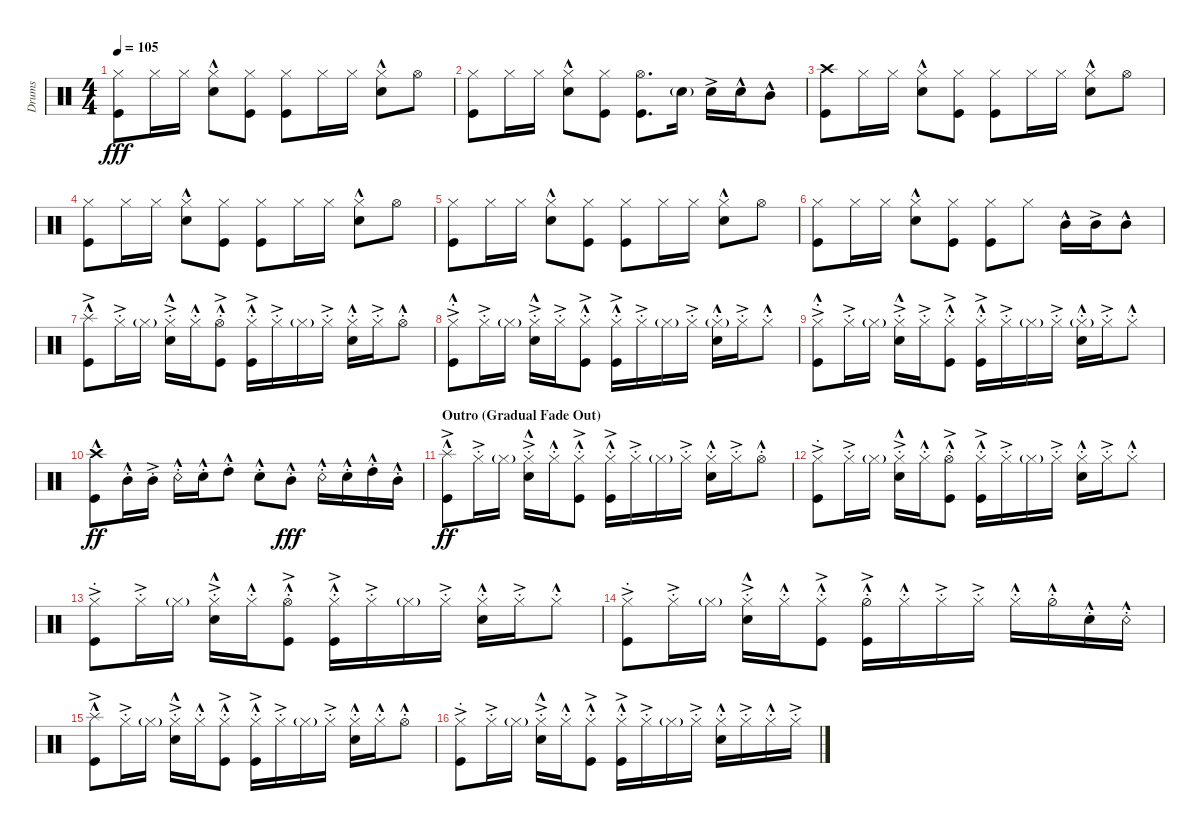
\defaultSystemsLayout 4
\otherSystemsTrackNameOrientation horizontal
\chordDiagramsInScore
\track ("Drumkit" "Drums") {instrument percussion}
\staff {score}
\articulation defaults
\ts (4 4)
\tempo 105
\clef neutral
\scale
0.5
\ks c
("Kick (hit)" "Hi-Hat (closed)").8{dy fff} "Hi-Hat (closed)".16 "Hi-Hat (closed)".16 ("Hi-Hat (closed)" "Snare (hit) 2"{hac}).8 ("Kick (hit)" "Hi-Hat (closed)").8 ("Kick (hit)" "Hi-Hat (closed)").8 "Hi-Hat (closed)".16 "Hi-Hat (closed)".16 ("Snare (hit) 2"{hac} "Hi-Hat (closed)").8 "Hi-Hat (open)".8 |
\scale
0.5 ("Kick (hit)" "Hi-Hat (closed)").8 "Hi-Hat (closed)".16 "Hi-Hat (closed)".16 ("Hi-Hat (closed)" "Snare (hit) 2"{hac}).8 ("Kick (hit)" "Hi-Hat (closed)").8 ("Kick (hit)" "Hi-Hat (open)").8{d} "Snare (hit) 2"{g}.16 "Snare (hit) 2"{ac}.16 "Snare (hit) 2"{hac}.16 "Mid Tom (hit)"{hac}.8 |
\scale
0.5 ("Kick (hit)" "Crash high (hit)").8 "Hi-Hat (closed)".16 "Hi-Hat (closed)".16 ("Hi-Hat (closed)" "Snare (hit) 2"{hac}).8 ("Kick (hit)" "Hi-Hat (closed)").8 ("Kick (hit)" "Hi-Hat (closed)").8 "Hi-Hat (closed)".16 "Hi-Hat (closed)".16 ("Snare (hit) 2"{hac} "Hi-Hat (closed)").8 "Hi-Hat (open)".8 |
\scale
0.5 ("Kick (hit)" "Hi-Hat (closed)").8 "Hi-Hat (closed)".16 "Hi-Hat (closed)".16 ("Hi-Hat (closed)" "Snare (hit) 2"{hac}).8 ("Kick (hit)" "Hi-Hat (closed)").8 ("Kick (hit)" "Hi-Hat (closed)").8 "Hi-Hat (closed)".16 "Hi-Hat (closed)".16 ("Snare (hit) 2"{hac} "Hi-Hat (closed)").8 "Hi-Hat (open)".8 |
\scale
0.5 ("Kick (hit)" "Hi-Hat (closed)").8 "Hi-Hat (closed)".16 "Hi-Hat (closed)".16 ("Hi-Hat (closed)" "Snare (hit) 2"{hac}).8 ("Kick (hit)" "Hi-Hat (closed)").8 ("Kick (hit)" "Hi-Hat (closed)").8 "Hi-Hat (closed)".16 "Hi-Hat (closed)".16 ("Snare (hit) 2"{hac} "Hi-Hat (closed)").8 "Hi-Hat (open)".8 |
\scale
0.5 ("Kick (hit)" "Hi-Hat (closed)").8 "Hi-Hat (closed)".16 "Hi-Hat (closed)".16 ("Hi-Hat (closed)" "Snare (hit) 2"{hac}).8 ("Kick (hit)" "Hi-Hat (closed)").8 ("Kick (hit)" "Hi-Hat (closed)").8 "Hi-Hat (closed)".8 "Mid Tom (hit)"{hac}.16 "Mid Tom (hit)"{ac}.16 "Mid Tom (hit)"{hac}.8 |
\scale
0.5 ("Splash (hit)"{hac} "Kick (hit)"{ac}).8 "Hi-Hat (closed)"{ac st}.16 "Hi-Hat (closed)"{g}.16 ("Hi-Hat (closed)"{ac st} "Snare (hit) 2"{hac st}).16 "Hi-Hat (closed)"{hac st}.16 ("Hi-Hat (open)"{hac st} "Kick (hit)"{ac st}).8 ("Hi-Hat (closed)"{hac st} "Kick (hit)"{ac st}).16 "Hi-Hat (closed)"{ac st}.16 "Hi-Hat (closed)"{g}.16 "Hi-Hat (closed)"{ac st}.16 ("Hi-Hat (closed)"{hac st} "Snare (hit) 2"{hac st}).16 "Hi-Hat (closed)"{ac st}.16 "Hi-Hat (open)"{hac st}.8 |
\scale
0.5 ("Kick (hit)"{ac} "Hi-Hat (closed)"{hac st}).8 "Hi-Hat (closed)"{ac st}.16 "Hi-Hat (closed)"{g}.16 ("Hi-Hat (closed)"{ac st} "Snare (hit) 2"{hac st}).16 "Hi-Hat (closed)"{ac st}.16 ("Hi-Hat (closed)"{hac st} "Kick (hit)"{ac st}).8 ("Hi-Hat (closed)"{hac st} "Kick (hit)"{ac st}).16 "Hi-Hat (closed)"{ac st}.16 "Hi-Hat (closed)"{g}.16 "Hi-Hat (closed)"{ac st}.16 ("Hi-Hat (closed)"{g} "Snare (hit) 2"{hac st}).16 "Hi-Hat (closed)"{ac st}.16 "Hi-Hat (closed)"{hac st}.8 |
\scale
0.5 ("Kick (hit)"{ac} "Hi-Hat (closed)"{hac st}).8 "Hi-Hat (closed)"{ac st}.16 "Hi-Hat (closed)"{g}.16 ("Hi-Hat (closed)"{ac st} "Snare (hit) 2"{hac st}).16 "Hi-Hat (closed)"{ac st}.16 ("Hi-Hat (closed)"{hac st} "Kick (hit)"{ac st}).8 ("Hi-Hat (closed)"{hac st} "Kick (hit)"{ac st}).16 "Hi-Hat (closed)"{ac st}.16 "Hi-Hat (closed)"{g}.16 "Hi-Hat (closed)"{ac st}.16 ("Hi-Hat (closed)"{g} "Snare (hit) 2"{hac st}).16 "Hi-Hat (closed)"{ac st}.16 "Hi-Hat (closed)"{hac st}.8 |
\scale
0.5 ("Kick (hit)"{hac} "Crash high (hit)"{hac}).8{dy ff} "Mid Tom (hit)"{hac st}.16 "Mid Tom (hit)"{ac st}.16 "Snare (rim shot)"{hac st}.16 "Snare (hit) 2"{hac st}.16 "High Tom (hit)"{hac st}.8 "Snare (hit) 2"{hac st}.8 "Mid Tom (hit)"{hac st}.8{dy fff} "Snare (rim shot)"{hac st}.16 "Snare (hit) 2"{hac st}.16 "High Tom (hit)"{hac st}.16 "Mid Tom (hit)"{hac st}.16 |
\section ("" "Outro (Gradual Fade Out)")
\scale
0.5 ("Splash (hit)"{hac} "Kick (hit)"{ac}).8{dy ff} "Hi-Hat (closed)"{ac st}.16 "Hi-Hat (closed)"{g}.16 ("Hi-Hat (closed)"{ac st} "Snare (hit) 2"{hac st}).16 "Hi-Hat (closed)"{hac st}.16 ("Hi-Hat (closed)"{hac st} "Kick (hit)"{ac st}).8 ("Hi-Hat (closed)"{hac st} "Kick (hit)"{ac st}).16 "Hi-Hat (closed)"{ac st}.16 "Hi-Hat (closed)"{g}.16 "Hi-Hat (closed)"{ac st}.16 ("Hi-Hat (closed)"{hac st} "Snare (hit) 2"{hac st}).16 "Hi-Hat (closed)"{ac st}.16 "Hi-Hat (open)"{hac st}.8 |
\scale
0.5 ("Kick (hit)"{ac} "Hi-Hat (closed)"{ac st}).8 "Hi-Hat (closed)"{ac st}.16 "Hi-Hat (closed)"{g}.16 ("Hi-Hat (closed)"{ac st} "Snare (hit) 2"{hac st}).16 "Hi-Hat (closed)"{hac st}.16 ("Hi-Hat (open)"{hac st} "Kick (hit)"{ac st}).8 ("Hi-Hat (closed)"{hac st} "Kick (hit)"{ac st}).16 "Hi-Hat (closed)"{ac st}.16 "Hi-Hat (closed)"{g}.16 "Hi-Hat (closed)"{ac st}.16 ("Hi-Hat (closed)"{hac st} "Snare (hit) 2"{hac st}).16 "Hi-Hat (closed)"{ac st}.16 "Hi-Hat (closed)"{hac st}.8 |
\scale
0.5 ("Kick (hit)"{ac} "Hi-Hat (closed)"{ac st}).8 "Hi-Hat (closed)"{ac st}.16 "Hi-Hat (closed)"{g}.16 ("Hi-Hat (closed)"{ac st} "Snare (hit) 2"{hac st}).16 "Hi-Hat (closed)"{hac st}.16 ("Hi-Hat (open)"{hac st} "Kick (hit)"{ac st}).8 ("Hi-Hat (closed)"{hac st} "Kick (hit)"{ac st}).16 "Hi-Hat (closed)"{ac st}.16 "Hi-Hat (closed)"{g}.16 "Hi-Hat (closed)"{ac st}.16 ("Hi-Hat (closed)"{hac st} "Snare (hit) 2"{hac st}).16 "Hi-Hat (closed)"{ac st}.16 "Hi-Hat (closed)"{hac st}.8 |
\scale
0.5 ("Kick (hit)"{ac} "Hi-Hat (closed)"{ac st}).8 "Hi-Hat (closed)"{ac st}.16 "Hi-Hat (closed)"{g}.16 ("Hi-Hat (closed)"{ac st} "Snare (hit) 2"{hac st}).16 "Hi-Hat (closed)"{hac st}.16 ("Hi-Hat (closed)"{hac st} "Kick (hit)"{ac st}).8 ("Hi-Hat (half)"{hac st} "Kick (hit)"{ac st}).16 "Hi-Hat (closed)"{hac st}.16 "Hi-Hat (closed)"{ac st}.16 "Hi-Hat (closed)"{ac st}.16 "Hi-Hat (closed)"{hac st}.16 "Hi-Hat (half)"{hac st}.16 "Snare (hit) 2"{hac st}.16 "Snare (rim shot)"{hac st}.16 |
\scale
0.5 ("Splash (hit)"{hac} "Kick (hit)"{ac}).8 "Hi-Hat (closed)"{ac st}.16 "Hi-Hat (closed)"{g}.16 ("Hi-Hat (closed)"{ac st} "Snare (hit) 2"{hac st}).16 "Hi-Hat (closed)"{hac st}.16 ("Hi-Hat (closed)"{hac st} "Kick (hit)"{ac st}).8 ("Hi-Hat (closed)"{hac st} "Kick (hit)"{ac st}).16 "Hi-Hat (closed)"{ac st}.16 "Hi-Hat (closed)"{g}.16 "Hi-Hat (closed)"{ac st}.16 ("Hi-Hat (closed)"{hac st} "Snare (hit) 2"{hac st}).16 "Hi-Hat (closed)"{hac st}.16 "Hi-Hat (open)"{hac st}.8 |
\scale
0.5 ("Kick (hit)"{ac} "Hi-Hat (closed)"{ac st}).8 "Hi-Hat (closed)"{ac st}.16 "Hi-Hat (closed)"{g}.16 ("Hi-Hat (closed)"{ac st} "Snare (hit) 2"{hac st}).16 "Hi-Hat (closed)"{hac st}.16 ("Hi-Hat (closed)"{hac st} "Kick (hit)"{ac st}).8 ("Hi-Hat (closed)"{hac st} "Kick (hit)"{ac st}).16 "Hi-Hat (closed)"{ac st}.16 "Hi-Hat (closed)"{g}.16 "Hi-Hat (closed)"{ac st}.16 ("Hi-Hat (closed)"{hac st} "Snare (hit) 2"{hac st}).16 "Hi-Hat (closed)"{ac st}.16 "Hi-Hat (closed)"{hac st}.16 "Hi-Hat (closed)"{ac st}.16
